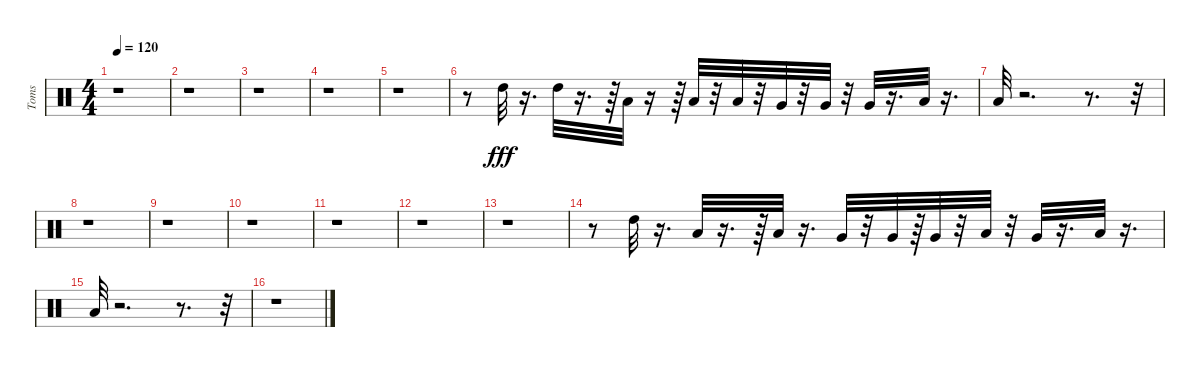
\track ("Toms" "Toms") {instrument percussion}
\staff {score}
\articulation defaults
\ts (4 4)
\tempo 120
\clef neutral
\ks c
r.1{dy fff} |
r.1 |
r.1 |
r.1 |
r.1 |
r.8 "High Tom (hit)".32 r.16{d} "High Tom (hit)".32 r.16{d} r.64 "Low Tom (hit)".32 r.16 r.64 "Low Tom (hit)".32 r.32 "Low Tom (hit)".32 r.32 "Very Low Tom (hit)".32 r.32 "Very Low Tom (hit)".32 r.32 "Very Low Tom (hit)".32 r.16{d} "Low Floor Tom (hit)".32 r.16{d} |
"Low Floor Tom (hit)".32 r.2{d} r.8{d} r.32 |
r.1 |
r.1 |
r.1 |
r.1 |
r.1 |
r.1 |
r.8 "High Tom (hit)".32 r.16{d} "Low Tom (hit)".32 r.16{d} r.64 "Low Tom (hit)".32 r.16{d} "Very Low Tom (hit)".32 r.32 "Very Low Tom (hit)".32 r.64 "Very Low Tom (hit)".32 r.32 "Low Floor Tom (hit)".32 r.32 "Very Low Tom (hit)".32 r.16{d} "Low Floor Tom (hit)".32 r.16{d} |
"Low Floor Tom (hit)".32 r.2{d} r.8{d} r.32 |
r.1
